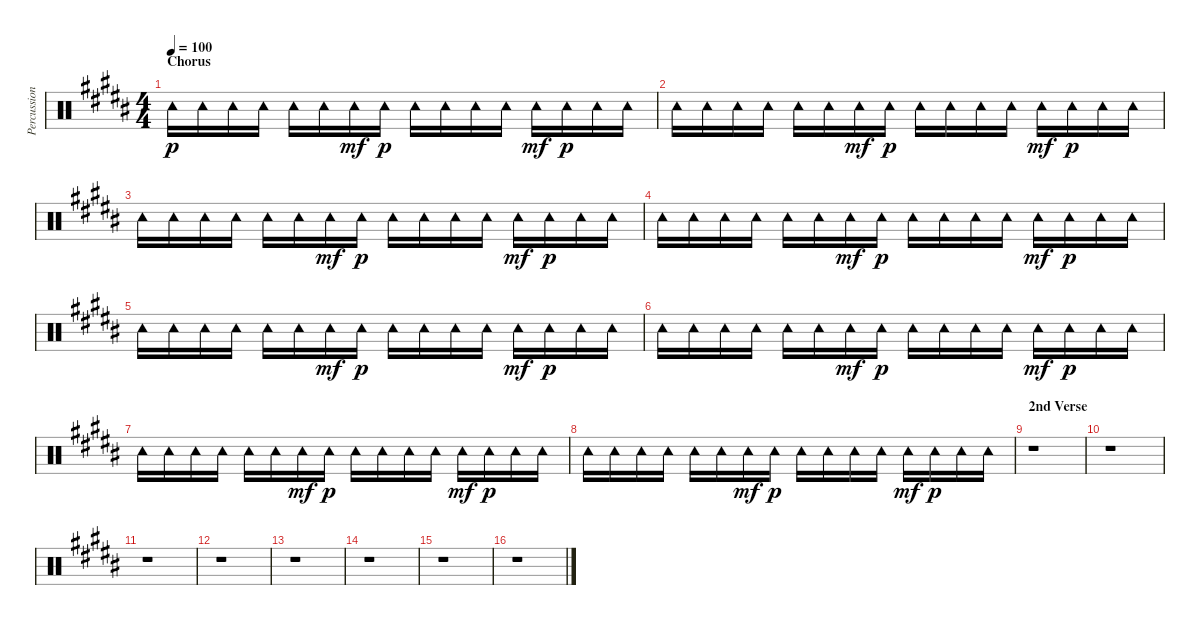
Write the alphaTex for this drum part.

\track ("Percussion" "Percussion") {instrument percussion}
\staff {score}
\articulation defaults
\ts (4 4)
\section ("" "Chorus")
\tempo 100
\clef neutral
\ks b "Tambourine (hit)".16{dy p} "Tambourine (hit)".16 "Tambourine (hit)".16 "Tambourine (hit)".16 "Tambourine (hit)".16 "Tambourine (hit)".16 "Tambourine (hit)".16{dy mf} "Tambourine (hit)".16{dy p} "Tambourine (hit)".16 "Tambourine (hit)".16 "Tambourine (hit)".16 "Tambourine (hit)".16 "Tambourine (hit)".16{dy mf} "Tambourine (hit)".16{dy p} "Tambourine (hit)".16 "Tambourine (hit)".16
|
"Tambourine (hit)".16 "Tambourine (hit)".16 "Tambourine (hit)".16 "Tambourine (hit)".16 "Tambourine (hit)".16 "Tambourine (hit)".16 "Tambourine (hit)".16{dy mf} "Tambourine (hit)".16{dy p} "Tambourine (hit)".16 "Tambourine (hit)".16 "Tambourine (hit)".16 "Tambourine (hit)".16 "Tambourine (hit)".16{dy mf} "Tambourine (hit)".16{dy p} "Tambourine (hit)".16 "Tambourine (hit)".16 |
"Tambourine (hit)".16 "Tambourine (hit)".16 "Tambourine (hit)".16 "Tambourine (hit)".16 "Tambourine (hit)".16 "Tambourine (hit)".16 "Tambourine (hit)".16{dy mf} "Tambourine (hit)".16{dy p} "Tambourine (hit)".16 "Tambourine (hit)".16 "Tambourine (hit)".16 "Tambourine (hit)".16 "Tambourine (hit)".16{dy mf} "Tambourine (hit)".16{dy p} "Tambourine (hit)".16 "Tambourine (hit)".16 |
"Tambourine (hit)".16 "Tambourine (hit)".16 "Tambourine (hit)".16 "Tambourine (hit)".16 "Tambourine (hit)".16 "Tambourine (hit)".16 "Tambourine (hit)".16{dy mf} "Tambourine (hit)".16{dy p} "Tambourine (hit)".16 "Tambourine (hit)".16 "Tambourine (hit)".16 "Tambourine (hit)".16 "Tambourine (hit)".16{dy mf} "Tambourine (hit)".16{dy p} "Tambourine (hit)".16 "Tambourine (hit)".16 |
"Tambourine (hit)".16 "Tambourine (hit)".16 "Tambourine (hit)".16 "Tambourine (hit)".16 "Tambourine (hit)".16 "Tambourine (hit)".16 "Tambourine (hit)".16{dy mf} "Tambourine (hit)".16{dy p} "Tambourine (hit)".16 "Tambourine (hit)".16 "Tambourine (hit)".16 "Tambourine (hit)".16 "Tambourine (hit)".16{dy mf} "Tambourine (hit)".16{dy p} "Tambourine (hit)".16 "Tambourine (hit)".16 |
"Tambourine (hit)".16 "Tambourine (hit)".16 "Tambourine (hit)".16 "Tambourine (hit)".16 "Tambourine (hit)".16 "Tambourine (hit)".16 "Tambourine (hit)".16{dy mf} "Tambourine (hit)".16{dy p} "Tambourine (hit)".16 "Tambourine (hit)".16 "Tambourine (hit)".16 "Tambourine (hit)".16 "Tambourine (hit)".16{dy mf} "Tambourine (hit)".16{dy p} "Tambourine (hit)".16 "Tambourine (hit)".16 |
"Tambourine (hit)".16 "Tambourine (hit)".16 "Tambourine (hit)".16 "Tambourine (hit)".16 "Tambourine (hit)".16 "Tambourine (hit)".16 "Tambourine (hit)".16{dy mf} "Tambourine (hit)".16{dy p} "Tambourine (hit)".16 "Tambourine (hit)".16 "Tambourine (hit)".16 "Tambourine (hit)".16 "Tambourine (hit)".16{dy mf} "Tambourine (hit)".16{dy p} "Tambourine (hit)".16 "Tambourine (hit)".16 |
"Tambourine (hit)".16 "Tambourine (hit)".16 "Tambourine (hit)".16 "Tambourine (hit)".16 "Tambourine (hit)".16 "Tambourine (hit)".16 "Tambourine (hit)".16{dy mf} "Tambourine (hit)".16{dy p} "Tambourine (hit)".16 "Tambourine (hit)".16 "Tambourine (hit)".16 "Tambourine (hit)".16 "Tambourine (hit)".16{dy mf} "Tambourine (hit)".16{dy p} "Tambourine (hit)".16 "Tambourine (hit)".16 |
\section ("" "2nd Verse")
r.1 |
r.1 |
r.1 |
r.1 |
r.1 |
r.1 |
r.1 |
r.1
